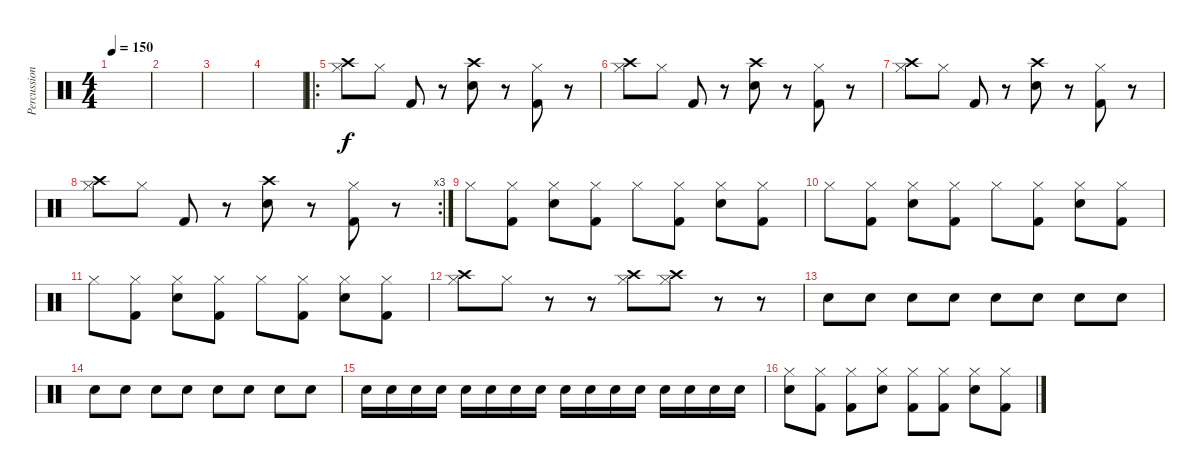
\track ("Percussion" "Percussion") {instrument percussion}
\staff {score}
\articulation defaults
\ts (4 4)
\tempo 150
\clef neutral
\ks c
|
|
|
|
\ro
("Hi-Hat (closed)" "Crash high (hit)").8 "Hi-Hat (closed)".8 "Kick (hit) 2".8 r.8 ("Electric Snare (hit)" "Crash high (hit)").8 r.8 ("Hi-Hat (closed)" "Kick (hit) 2").8 r.8 |
("Hi-Hat (closed)" "Crash high (hit)").8 "Hi-Hat (closed)".8 "Kick (hit) 2".8 r.8 ("Electric Snare (hit)" "Crash high (hit)").8 r.8 ("Hi-Hat (closed)" "Kick (hit) 2").8 r.8 |
("Hi-Hat (closed)" "Crash high (hit)").8 "Hi-Hat (closed)".8 "Kick (hit) 2".8 r.8 ("Electric Snare (hit)" "Crash high (hit)").8 r.8 ("Hi-Hat (closed)" "Kick (hit) 2").8 r.8 |
\rc 3
("Hi-Hat (closed)" "Crash high (hit)").8 "Hi-Hat (closed)".8 "Kick (hit) 2".8 r.8 ("Electric Snare (hit)" "Crash high (hit)").8 r.8 ("Hi-Hat (closed)" "Kick (hit) 2").8 r.8 |
"Hi-Hat (closed)".8 ("Hi-Hat (closed)" "Kick (hit) 2").8 ("Hi-Hat (closed)" "Electric Snare (hit)").8 ("Hi-Hat (closed)" "Kick (hit) 2").8 "Hi-Hat (closed)".8 ("Hi-Hat (closed)" "Kick (hit) 2").8 ("Hi-Hat (closed)" "Electric Snare (hit)").8 ("Hi-Hat (closed)" "Kick (hit) 2").8 |
"Hi-Hat (closed)".8 ("Hi-Hat (closed)" "Kick (hit) 2").8 ("Hi-Hat (closed)" "Electric Snare (hit)").8 ("Hi-Hat (closed)" "Kick (hit) 2").8 "Hi-Hat (closed)".8 ("Hi-Hat (closed)" "Kick (hit) 2").8 ("Hi-Hat (closed)" "Electric Snare (hit)").8 ("Hi-Hat (closed)" "Kick (hit) 2").8 |
"Hi-Hat (closed)".8 ("Hi-Hat (closed)" "Kick (hit) 2").8 ("Hi-Hat (closed)" "Electric Snare (hit)").8 ("Hi-Hat (closed)" "Kick (hit) 2").8 "Hi-Hat (closed)".8 ("Hi-Hat (closed)" "Kick (hit) 2").8 ("Hi-Hat (closed)" "Electric Snare (hit)").8 ("Hi-Hat (closed)" "Kick (hit) 2").8 |
("Hi-Hat (closed)" "Crash high (hit)").8 "Hi-Hat (closed)".8 r.8 r.8 ("Hi-Hat (closed)" "Crash high (hit)").8 ("Hi-Hat (closed)" "Crash high (hit)").8 r.8 r.8 |
"Electric Snare (hit)".8 "Electric Snare (hit)".8 "Electric Snare (hit)".8 "Electric Snare (hit)".8 "Electric Snare (hit)".8 "Electric Snare (hit)".8 "Electric Snare (hit)".8 "Electric Snare (hit)".8 |
"Electric Snare (hit)".8 "Electric Snare (hit)".8 "Electric Snare (hit)".8 "Electric Snare (hit)".8 "Electric Snare (hit)".8 "Electric Snare (hit)".8 "Electric Snare (hit)".8 "Electric Snare (hit)".8 |
"Electric Snare (hit)".16 "Electric Snare (hit)".16 "Electric Snare (hit)".16 "Electric Snare (hit)".16 "Electric Snare (hit)".16 "Electric Snare (hit)".16 "Electric Snare (hit)".16 "Electric Snare (hit)".16 "Electric Snare (hit)".16 "Electric Snare (hit)".16 "Electric Snare (hit)".16 "Electric Snare (hit)".16 "Electric Snare (hit)".16 "Electric Snare (hit)".16 "Electric Snare (hit)".16 "Electric Snare (hit)".16 |
("Electric Snare (hit)" "Hi-Hat (closed)").8 ("Hi-Hat (closed)" "Kick (hit) 2").8 ("Hi-Hat (closed)" "Kick (hit) 2").8 ("Electric Snare (hit)" "Hi-Hat (closed)").8 ("Hi-Hat (closed)" "Kick (hit) 2").8 ("Hi-Hat (closed)" "Kick (hit) 2").8 ("Electric Snare (hit)" "Hi-Hat (closed)").8 ("Hi-Hat (closed)" "Kick (hit) 2").8
